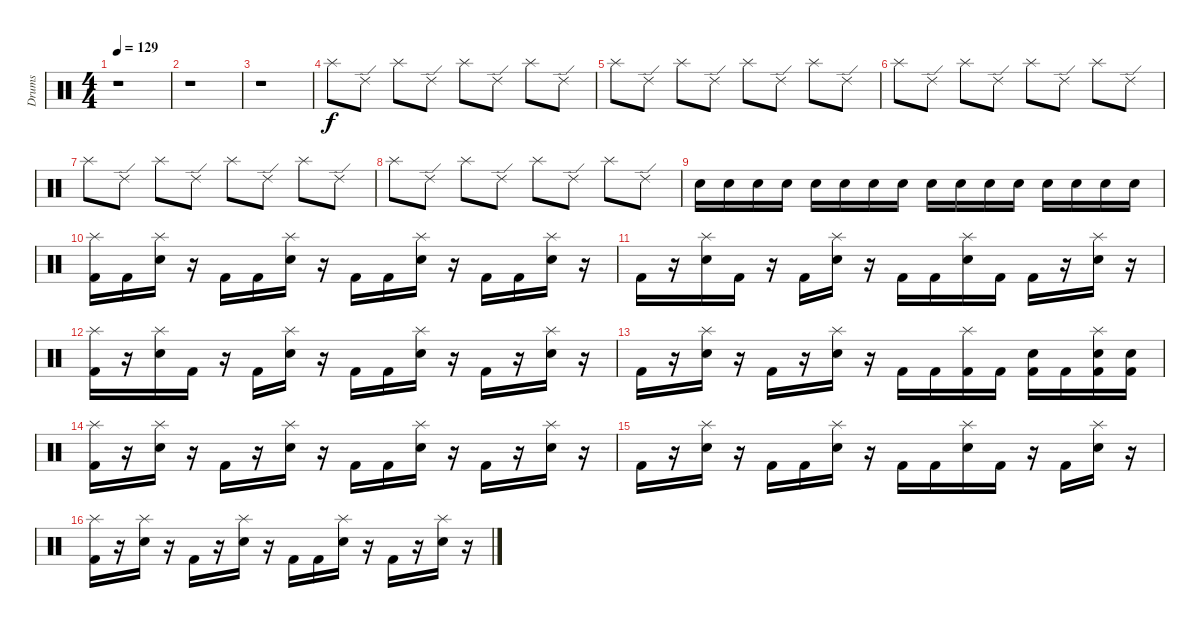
\track ("Drums" "Drums") {instrument percussion}
\staff {score}
\articulation defaults
\ts (4 4)
\tempo 129
\clef neutral
\ks c
r.1{dy f} |
r.1 |
r.1 |
"Splash (hit)".8 "Ride (edge) 2".8 "Splash (hit)".8 "Ride (edge) 2".8 "Splash (hit)".8 "Ride (edge) 2".8 "Splash (hit)".8 "Ride (edge) 2".8 |
"Splash (hit)".8 "Ride (edge) 2".8 "Splash (hit)".8 "Ride (edge) 2".8 "Splash (hit)".8 "Ride (edge) 2".8 "Splash (hit)".8 "Ride (edge) 2".8 |
"Splash (hit)".8 "Ride (edge) 2".8 "Splash (hit)".8 "Ride (edge) 2".8 "Splash (hit)".8 "Ride (edge) 2".8 "Splash (hit)".8 "Ride (edge) 2".8 |
"Splash (hit)".8 "Ride (edge) 2".8 "Splash (hit)".8 "Ride (edge) 2".8 "Splash (hit)".8 "Ride (edge) 2".8 "Splash (hit)".8 "Ride (edge) 2".8 |
"Splash (hit)".8 "Ride (edge) 2".8 "Splash (hit)".8 "Ride (edge) 2".8 "Splash (hit)".8 "Ride (edge) 2".8 "Splash (hit)".8 "Ride (edge) 2".8 |
"Snare (hit) 2".16 "Snare (hit) 2".16 "Snare (hit) 2".16 "Snare (hit) 2".16 "Snare (hit) 2".16 "Snare (hit) 2".16 "Snare (hit) 2".16 "Snare (hit) 2".16 "Snare (hit) 2".16 "Snare (hit) 2".16 "Snare (hit) 2".16 "Snare (hit) 2".16 "Snare (hit) 2".16 "Snare (hit) 2".16 "Snare (hit) 2".16 "Snare (hit) 2".16 |
("Splash (hit)" "Kick (hit) 2").16 "Kick (hit) 2".16 ("Snare (hit) 2" "Splash (hit)").16 r.16 "Kick (hit) 2".16 "Kick (hit) 2".16 ("Snare (hit) 2" "Splash (hit)").16 r.16 "Kick (hit) 2".16 "Kick (hit) 2".16 ("Snare (hit) 2" "Splash (hit)").16 r.16 "Kick (hit) 2".16 "Kick (hit) 2".16 ("Snare (hit) 2" "Splash (hit)").16 r.16 |
"Kick (hit) 2".16 r.16 ("Snare (hit) 2" "Splash (hit)").16 "Kick (hit) 2".16 r.16 "Kick (hit) 2".16 ("Snare (hit) 2" "Splash (hit)").16 r.16 "Kick (hit) 2".16 "Kick (hit) 2".16 ("Snare (hit) 2" "Splash (hit)").16 "Kick (hit) 2".16 "Kick (hit) 2".16 r.16 ("Snare (hit) 2" "Splash (hit)").16 r.16 |
("Splash (hit)" "Kick (hit) 2").16 r.16 ("Snare (hit) 2" "Splash (hit)").16 "Kick (hit) 2".16 r.16 "Kick (hit) 2".16 ("Snare (hit) 2" "Splash (hit)").16 r.16 "Kick (hit) 2".16 "Kick (hit) 2".16 ("Snare (hit) 2" "Splash (hit)").16 r.16 "Kick (hit) 2".16 r.16 ("Snare (hit) 2" "Splash (hit)").16 r.16 |
"Kick (hit) 2".16 r.16 ("Snare (hit) 2" "Splash (hit)").16 r.16 "Kick (hit) 2".16 r.16 ("Snare (hit) 2" "Splash (hit)").16 r.16 "Kick (hit) 2".16 "Kick (hit) 2".16 ("Splash (hit)" "Kick (hit) 2").16 "Kick (hit) 2".16 ("Snare (hit) 2" "Kick (hit) 2").16 "Kick (hit) 2".16 ("Snare (hit) 2" "Splash (hit)" "Kick (hit) 2").16 ("Snare (hit) 2" "Kick (hit) 2").16 |
("Splash (hit)" "Kick (hit) 2").16 r.16 ("Snare (hit) 2" "Splash (hit)").16 r.16 "Kick (hit) 2".16 r.16 ("Snare (hit) 2" "Splash (hit)").16 r.16 "Kick (hit) 2".16 "Kick (hit) 2".16 ("Snare (hit) 2" "Splash (hit)").16 r.16 "Kick (hit) 2".16 r.16 ("Snare (hit) 2" "Splash (hit)").16 r.16 |
"Kick (hit) 2".16 r.16 ("Snare (hit) 2" "Splash (hit)").16 r.16 "Kick (hit) 2".16 "Kick (hit) 2".16 ("Snare (hit) 2" "Splash (hit)").16 r.16 "Kick (hit) 2".16 "Kick (hit) 2".16 ("Snare (hit) 2" "Splash (hit)").16 "Kick (hit) 2".16 r.16 "Kick (hit) 2".16 ("Snare (hit) 2" "Splash (hit)").16 r.16 |
("Splash (hit)" "Kick (hit) 2").16 r.16 ("Snare (hit) 2" "Splash (hit)").16 r.16 "Kick (hit) 2".16 r.16 ("Snare (hit) 2" "Splash (hit)").16 r.16 "Kick (hit) 2".16 "Kick (hit) 2".16 ("Snare (hit) 2" "Splash (hit)").16 r.16 "Kick (hit) 2".16 r.16 ("Snare (hit) 2" "Splash (hit)").16 r.16
